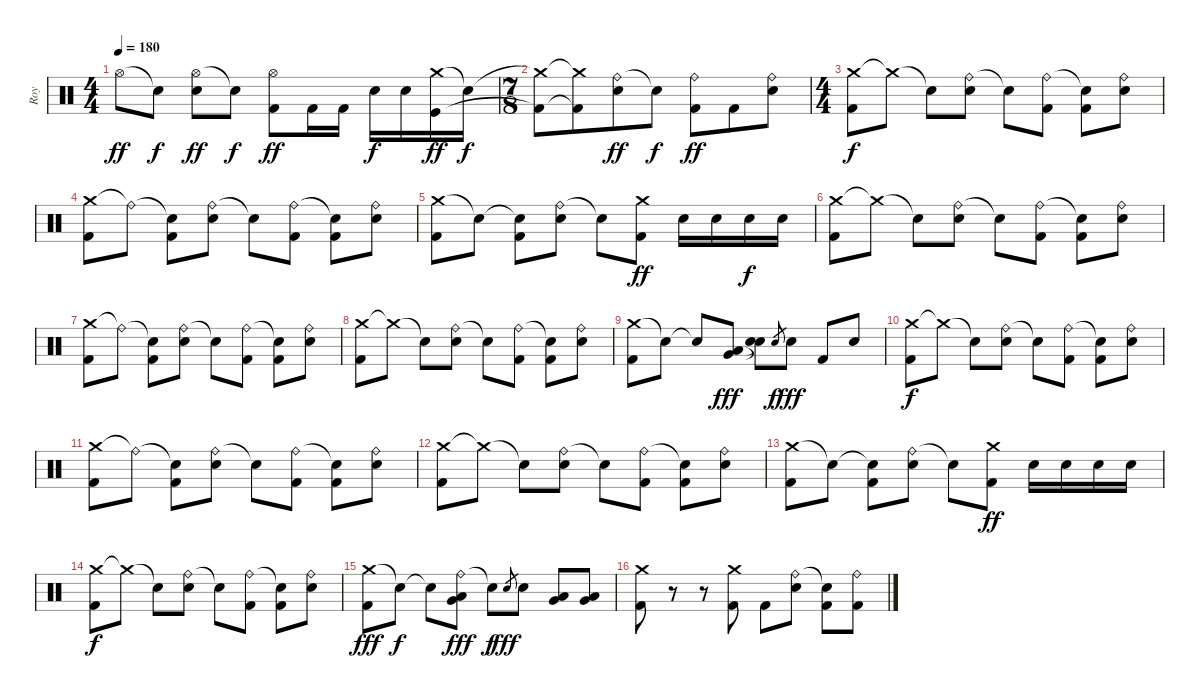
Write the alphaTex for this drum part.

\track ("Roy" "Roy") {instrument percussion}
\staff {score}
\articulation defaults
\ts (4 4)
\tempo 180
\clef neutral
\ks c "Hi-Hat (open)".8{dy ff} "Snare (hit)"{t}.8{dy f}
("Hi-Hat (open)" "Electric Snare (hit)").8{dy ff} "Snare (hit)"{t}.8{dy f} ("Hi-Hat (open)" "Kick (hit) 2").8{dy ff} "Kick (hit) 2".16 "Kick (hit) 2".16 "Electric Snare (hit)".16{dy f} "Electric Snare (hit)".16 ("Crash medium (hit)" "Kick (hit)").16{dy ff} "Snare (hit)"{t}.16{dy f} |
\ts (7 8)
("Crash medium (hit)"{t} "Kick (hit) 2"{t}).8 ("Crash medium (hit)"{t} "Kick (hit) 2"{t}).8 ("Ride (bell)" "Electric Snare (hit)").8{dy ff} "Snare (hit)"{t}.8{dy f} ("Ride (bell)" "Kick (hit) 2").8{dy ff} "Kick (hit) 2".8 ("Ride (bell)" "Electric Snare (hit)").8 |
\ts (4 4)
("Crash medium (hit)" "Kick (hit) 2").8{dy f} "Crash medium (hit)"{t}.8 "Snare (hit)"{t}.8 ("Ride (bell)" "Electric Snare (hit)").8 "Snare (hit)"{t}.8 ("Ride (bell)" "Kick (hit) 2").8 ("Snare (hit)"{t} "Kick (hit) 2").8 ("Ride (bell)" "Electric Snare (hit)").8 |
("Crash medium (hit)" "Kick (hit) 2").8 "Ride (bell)"{t}.8 ("Snare (hit)"{t} "Kick (hit) 2").8 ("Ride (bell)" "Electric Snare (hit)").8 "Snare (hit)"{t}.8 ("Ride (bell)" "Kick (hit) 2").8 ("Snare (hit)"{t} "Kick (hit) 2").8 ("Ride (bell)" "Electric Snare (hit)").8 |
("Crash medium (hit)" "Kick (hit) 2").8 "Snare (hit)"{t}.8 ("Snare (hit)"{t} "Kick (hit) 2").8 ("Ride (bell)" "Electric Snare (hit)").8 "Snare (hit)"{t}.8 ("Crash medium (hit)" "Kick (hit) 2").8{dy ff} "Electric Snare (hit)".16 "Electric Snare (hit)".16 "Electric Snare (hit)".16{dy f} "Electric Snare (hit)".16 |
("Crash medium (hit)" "Kick (hit) 2").8 "Crash medium (hit)"{t}.8 "Snare (hit)"{t}.8 ("Ride (bell)" "Electric Snare (hit)").8 "Snare (hit)"{t}.8 ("Ride (bell)" "Kick (hit) 2").8 ("Snare (hit)"{t} "Kick (hit) 2").8 ("Ride (bell)" "Electric Snare (hit)").8 |
("Crash medium (hit)" "Kick (hit) 2").8 "Ride (bell)"{t}.8 ("Snare (hit)"{t} "Kick (hit) 2").8 ("Ride (bell)" "Electric Snare (hit)").8 "Snare (hit)"{t}.8 ("Ride (bell)" "Kick (hit) 2").8 ("Snare (hit)"{t} "Kick (hit) 2").8 ("Ride (bell)" "Electric Snare (hit)").8 |
("Crash medium (hit)" "Kick (hit) 2").8 "Crash medium (hit)"{t}.8 "Snare (hit)"{t}.8 ("Ride (bell)" "Electric Snare (hit)").8 "Snare (hit)"{t}.8 ("Ride (bell)" "Kick (hit) 2").8 ("Snare (hit)"{t} "Kick (hit) 2").8 ("Ride (bell)" "Electric Snare (hit)").8 |
("Crash medium (hit)" "Kick (hit) 2").8 "Snare (hit)"{t}.8 "Snare (hit)"{t}.8 ("Very Low Tom (hit)" "Low Tom (hit)").8{dy fff} ("Snare (hit)"{t} "Snare (hit)"{t}).8 "Electric Snare (hit)".8{gr dy f} "Electric Snare (hit)".8{dy fff} "Kick (hit) 2".8 "Electric Snare (hit)".8 |
("Crash medium (hit)" "Kick (hit) 2").8{dy f} "Crash medium (hit)"{t}.8 "Snare (hit)"{t}.8 ("Ride (bell)" "Electric Snare (hit)").8 "Snare (hit)"{t}.8 ("Ride (bell)" "Kick (hit) 2").8 ("Snare (hit)"{t} "Kick (hit) 2").8 ("Ride (bell)" "Electric Snare (hit)").8 |
("Crash medium (hit)" "Kick (hit) 2").8 "Ride (bell)"{t}.8 ("Snare (hit)"{t} "Kick (hit) 2").8 ("Ride (bell)" "Electric Snare (hit)").8 "Snare (hit)"{t}.8 ("Ride (bell)" "Kick (hit) 2").8 ("Snare (hit)"{t} "Kick (hit) 2").8 ("Ride (bell)" "Electric Snare (hit)").8 |
("Crash medium (hit)" "Kick (hit) 2").8 "Crash medium (hit)"{t}.8 "Snare (hit)"{t}.8 ("Ride (bell)" "Electric Snare (hit)").8 "Snare (hit)"{t}.8 ("Ride (bell)" "Kick (hit) 2").8 ("Snare (hit)"{t} "Kick (hit) 2").8 ("Ride (bell)" "Electric Snare (hit)").8 |
("Crash medium (hit)" "Kick (hit) 2").8 "Snare (hit)"{t}.8 ("Snare (hit)"{t} "Kick (hit) 2").8 ("Ride (bell)" "Electric Snare (hit)").8 "Snare (hit)"{t}.8 ("Crash medium (hit)" "Kick (hit) 2").8{dy ff} "Electric Snare (hit)".16 "Electric Snare (hit)".16 "Electric Snare (hit)".16 "Electric Snare (hit)".16 |
("Crash medium (hit)" "Kick (hit) 2").8{dy f} "Crash medium (hit)"{t}.8 "Snare (hit)"{t}.8 ("Ride (bell)" "Electric Snare (hit)").8 "Snare (hit)"{t}.8 ("Ride (bell)" "Kick (hit) 2").8 ("Snare (hit)"{t} "Kick (hit) 2").8 ("Ride (bell)" "Electric Snare (hit)").8 |
("Crash medium (hit)" "Kick (hit) 2").8{dy fff} "Snare (hit)"{t}.8{dy f} "Snare (hit)"{t}.8 ("Ride (bell)" "Very Low Tom (hit)" "Low Tom (hit)").8{dy fff} "Snare (hit)"{t}.8{dy f} "Electric Snare (hit)".8{gr dy fff} "Electric Snare (hit)".8 ("Very Low Tom (hit)" "Low Tom (hit)").8 ("Very Low Tom (hit)" "Low Tom (hit)").8 |
("Crash medium (hit)" "Kick (hit) 2").8 r.8 r.8 ("Crash medium (hit)" "Kick (hit) 2").8 "Kick (hit) 2".8 ("Ride (bell)" "Electric Snare (hit)").8 ("Snare (hit)"{t} "Kick (hit) 2").8 ("Ride (bell)" "Kick (hit) 2").8
